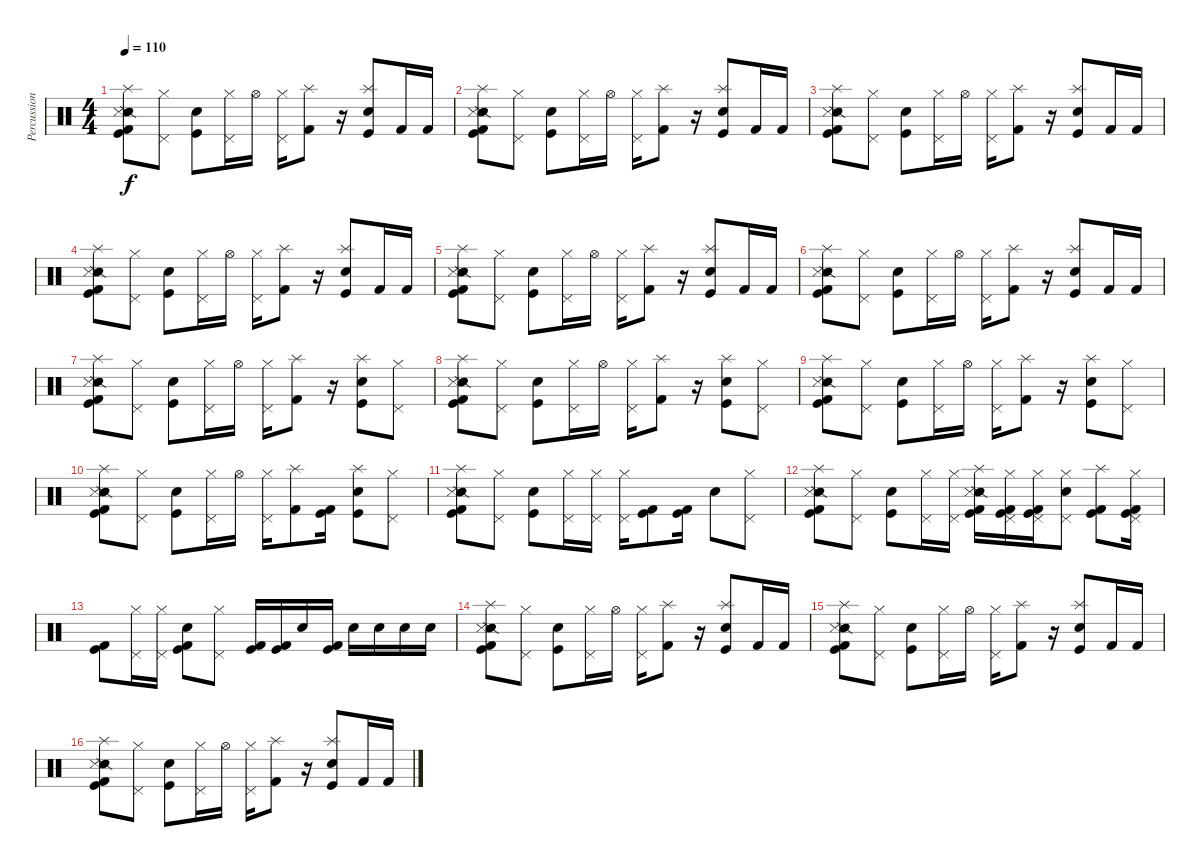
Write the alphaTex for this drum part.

\track ("Percussion" "Percussion") {instrument percussion}
\staff {score}
\articulation defaults
\ts (4 4)
\tempo 110
\clef neutral
\ks c
("Kick (hit)" "Kick (hit) 2" "Snare (side stick) 2" "Metronome (hit)" "Splash (hit)").8{dy f} ("Pedal Hi-Hat (hit)" "Hi-Hat (closed)").8 ("Snare (hit) 2" "Kick (hit)").8 ("Pedal Hi-Hat (hit)" "Hi-Hat (closed)").16 "Hi-Hat (open)".16 ("Pedal Hi-Hat (hit)" "Hi-Hat (closed)").16 ("Kick (hit) 2" "Splash (hit)").8 r.16 ("Snare (hit) 2" "Kick (hit)" "Splash (hit)").8 "Kick (hit) 2".16 "Kick (hit) 2".16 |
("Kick (hit)" "Kick (hit) 2" "Snare (side stick) 2" "Metronome (hit)" "Splash (hit)").8 ("Pedal Hi-Hat (hit)" "Hi-Hat (closed)").8 ("Snare (hit) 2" "Kick (hit)").8 ("Pedal Hi-Hat (hit)" "Hi-Hat (closed)").16 "Hi-Hat (open)".16 ("Pedal Hi-Hat (hit)" "Hi-Hat (closed)").16 ("Kick (hit) 2" "Splash (hit)").8 r.16 ("Snare (hit) 2" "Kick (hit)" "Splash (hit)").8 "Kick (hit) 2".16 "Kick (hit) 2".16 |
("Kick (hit)" "Kick (hit) 2" "Snare (side stick) 2" "Metronome (hit)" "Splash (hit)").8 ("Pedal Hi-Hat (hit)" "Hi-Hat (closed)").8 ("Snare (hit) 2" "Kick (hit)").8 ("Pedal Hi-Hat (hit)" "Hi-Hat (closed)").16 "Hi-Hat (open)".16 ("Pedal Hi-Hat (hit)" "Hi-Hat (closed)").16 ("Kick (hit) 2" "Splash (hit)").8 r.16 ("Snare (hit) 2" "Kick (hit)" "Splash (hit)").8 "Kick (hit) 2".16 "Kick (hit) 2".16 |
("Kick (hit)" "Kick (hit) 2" "Snare (side stick) 2" "Metronome (hit)" "Splash (hit)").8 ("Pedal Hi-Hat (hit)" "Hi-Hat (closed)").8 ("Snare (hit) 2" "Kick (hit)").8 ("Pedal Hi-Hat (hit)" "Hi-Hat (closed)").16 "Hi-Hat (open)".16 ("Pedal Hi-Hat (hit)" "Hi-Hat (closed)").16 ("Kick (hit) 2" "Splash (hit)").8 r.16 ("Snare (hit) 2" "Kick (hit)" "Splash (hit)").8 "Kick (hit) 2".16 "Kick (hit) 2".16 |
("Kick (hit)" "Kick (hit) 2" "Snare (side stick) 2" "Metronome (hit)" "Splash (hit)").8 ("Pedal Hi-Hat (hit)" "Hi-Hat (closed)").8 ("Snare (hit) 2" "Kick (hit)").8 ("Pedal Hi-Hat (hit)" "Hi-Hat (closed)").16 "Hi-Hat (open)".16 ("Pedal Hi-Hat (hit)" "Hi-Hat (closed)").16 ("Kick (hit) 2" "Splash (hit)").8 r.16 ("Snare (hit) 2" "Kick (hit)" "Splash (hit)").8 "Kick (hit) 2".16 "Kick (hit) 2".16 |
("Kick (hit)" "Kick (hit) 2" "Snare (side stick) 2" "Metronome (hit)" "Splash (hit)").8 ("Pedal Hi-Hat (hit)" "Hi-Hat (closed)").8 ("Snare (hit) 2" "Kick (hit)").8 ("Pedal Hi-Hat (hit)" "Hi-Hat (closed)").16 "Hi-Hat (open)".16 ("Pedal Hi-Hat (hit)" "Hi-Hat (closed)").16 ("Kick (hit) 2" "Splash (hit)").8 r.16 ("Snare (hit) 2" "Kick (hit)" "Splash (hit)").8 "Kick (hit) 2".16 "Kick (hit) 2".16 |
("Kick (hit)" "Kick (hit) 2" "Snare (side stick) 2" "Metronome (hit)" "Splash (hit)").8 ("Pedal Hi-Hat (hit)" "Hi-Hat (closed)").8 ("Snare (hit) 2" "Kick (hit)").8 ("Pedal Hi-Hat (hit)" "Hi-Hat (closed)").16 "Hi-Hat (open)".16 ("Pedal Hi-Hat (hit)" "Hi-Hat (closed)").16 ("Kick (hit) 2" "Splash (hit)").8 r.16 ("Snare (hit) 2" "Kick (hit)" "Splash (hit)").8 ("Pedal Hi-Hat (hit)" "Hi-Hat (closed)").8 |
("Kick (hit)" "Kick (hit) 2" "Snare (side stick) 2" "Metronome (hit)" "Splash (hit)").8 ("Pedal Hi-Hat (hit)" "Hi-Hat (closed)").8 ("Snare (hit) 2" "Kick (hit)").8 ("Pedal Hi-Hat (hit)" "Hi-Hat (closed)").16 "Hi-Hat (open)".16 ("Pedal Hi-Hat (hit)" "Hi-Hat (closed)").16 ("Kick (hit) 2" "Splash (hit)").8 r.16 ("Snare (hit) 2" "Kick (hit)" "Splash (hit)").8 ("Pedal Hi-Hat (hit)" "Hi-Hat (closed)").8 |
("Kick (hit)" "Kick (hit) 2" "Snare (side stick) 2" "Metronome (hit)" "Splash (hit)").8 ("Pedal Hi-Hat (hit)" "Hi-Hat (closed)").8 ("Snare (hit) 2" "Kick (hit)").8 ("Pedal Hi-Hat (hit)" "Hi-Hat (closed)").16 "Hi-Hat (open)".16 ("Pedal Hi-Hat (hit)" "Hi-Hat (closed)").16 ("Kick (hit) 2" "Splash (hit)").8 r.16 ("Snare (hit) 2" "Kick (hit)" "Splash (hit)").8 ("Pedal Hi-Hat (hit)" "Hi-Hat (closed)").8 |
("Kick (hit)" "Kick (hit) 2" "Snare (side stick) 2" "Metronome (hit)" "Splash (hit)").8 ("Pedal Hi-Hat (hit)" "Hi-Hat (closed)").8 ("Snare (hit) 2" "Kick (hit)").8 ("Pedal Hi-Hat (hit)" "Hi-Hat (closed)").16 "Hi-Hat (open)".16 ("Pedal Hi-Hat (hit)" "Hi-Hat (closed)").16 ("Kick (hit) 2" "Splash (hit)").8 ("Kick (hit) 2" "Kick (hit)").16 ("Snare (hit) 2" "Kick (hit)" "Splash (hit)").8 ("Pedal Hi-Hat (hit)" "Hi-Hat (closed)").8 |
("Kick (hit)" "Kick (hit) 2" "Snare (side stick) 2" "Metronome (hit)" "Splash (hit)").8 ("Pedal Hi-Hat (hit)" "Hi-Hat (closed)").8 ("Snare (hit) 2" "Kick (hit)").8 ("Pedal Hi-Hat (hit)" "Hi-Hat (closed)").16 ("Pedal Hi-Hat (hit)" "Hi-Hat (closed)").16 ("Pedal Hi-Hat (hit)" "Hi-Hat (closed)").16 ("Kick (hit) 2" "Kick (hit)").8 ("Kick (hit) 2" "Kick (hit)").16 "Snare (hit) 2".8 ("Pedal Hi-Hat (hit)" "Hi-Hat (closed)").8 |
("Kick (hit)" "Kick (hit) 2" "Snare (side stick) 2" "Metronome (hit)" "Splash (hit)").8 ("Pedal Hi-Hat (hit)" "Hi-Hat (closed)").8 ("Snare (hit) 2" "Kick (hit)").8 ("Pedal Hi-Hat (hit)" "Hi-Hat (closed)").16 ("Pedal Hi-Hat (hit)" "Hi-Hat (closed)").16 ("Kick (hit) 2" "Kick (hit)" "Snare (side stick) 2" "Metronome (hit)" "Splash (hit)").16 ("Kick (hit) 2" "Pedal Hi-Hat (hit)" "Hi-Hat (closed)" "Kick (hit)").16 ("Pedal Hi-Hat (hit)" "Hi-Hat (closed)" "Kick (hit) 2" "Kick (hit)").16 ("Snare (hit) 2" "Pedal Hi-Hat (hit)" "Hi-Hat (closed)").8 ("Kick (hit) 2" "Kick (hit)" "Splash (hit)").8 ("Pedal Hi-Hat (hit)" "Hi-Hat (closed)" "Kick (hit) 2" "Kick (hit)").16 |
("Kick (hit) 2" "Kick (hit)").8 ("Pedal Hi-Hat (hit)" "Hi-Hat (closed)").16 ("Pedal Hi-Hat (hit)" "Hi-Hat (closed)").16 ("Snare (hit) 2" "Kick (hit) 2" "Kick (hit)").8 ("Pedal Hi-Hat (hit)" "Hi-Hat (closed)").8 ("Kick (hit) 2" "Kick (hit)").16 ("Kick (hit)" "Kick (hit) 2").16 "Snare (hit) 2".16 ("Kick (hit)" "Kick (hit) 2").16 "Snare (hit) 2".16 "Electric Snare (hit)".16 "Electric Snare (hit)".16 "Snare (hit) 2".16 |
("Kick (hit)" "Kick (hit) 2" "Snare (side stick) 2" "Metronome (hit)" "Splash (hit)").8 ("Pedal Hi-Hat (hit)" "Hi-Hat (closed)").8 ("Snare (hit) 2" "Kick (hit)").8 ("Pedal Hi-Hat (hit)" "Hi-Hat (closed)").16 "Hi-Hat (open)".16 ("Pedal Hi-Hat (hit)" "Hi-Hat (closed)").16 ("Kick (hit) 2" "Splash (hit)").8 r.16 ("Snare (hit) 2" "Kick (hit)" "Splash (hit)").8 "Kick (hit) 2".16 "Kick (hit) 2".16 |
("Kick (hit)" "Kick (hit) 2" "Snare (side stick) 2" "Metronome (hit)" "Splash (hit)").8 ("Pedal Hi-Hat (hit)" "Hi-Hat (closed)").8 ("Snare (hit) 2" "Kick (hit)").8 ("Pedal Hi-Hat (hit)" "Hi-Hat (closed)").16 "Hi-Hat (open)".16 ("Pedal Hi-Hat (hit)" "Hi-Hat (closed)").16 ("Kick (hit) 2" "Splash (hit)").8 r.16 ("Snare (hit) 2" "Kick (hit)" "Splash (hit)").8 "Kick (hit) 2".16 "Kick (hit) 2".16 |
("Kick (hit)" "Kick (hit) 2" "Snare (side stick) 2" "Metronome (hit)" "Splash (hit)").8 ("Pedal Hi-Hat (hit)" "Hi-Hat (closed)").8 ("Snare (hit) 2" "Kick (hit)").8 ("Pedal Hi-Hat (hit)" "Hi-Hat (closed)").16 "Hi-Hat (open)".16 ("Pedal Hi-Hat (hit)" "Hi-Hat (closed)").16 ("Kick (hit) 2" "Splash (hit)").8 r.16 ("Snare (hit) 2" "Kick (hit)" "Splash (hit)").8 "Kick (hit) 2".16 "Kick (hit) 2".16
